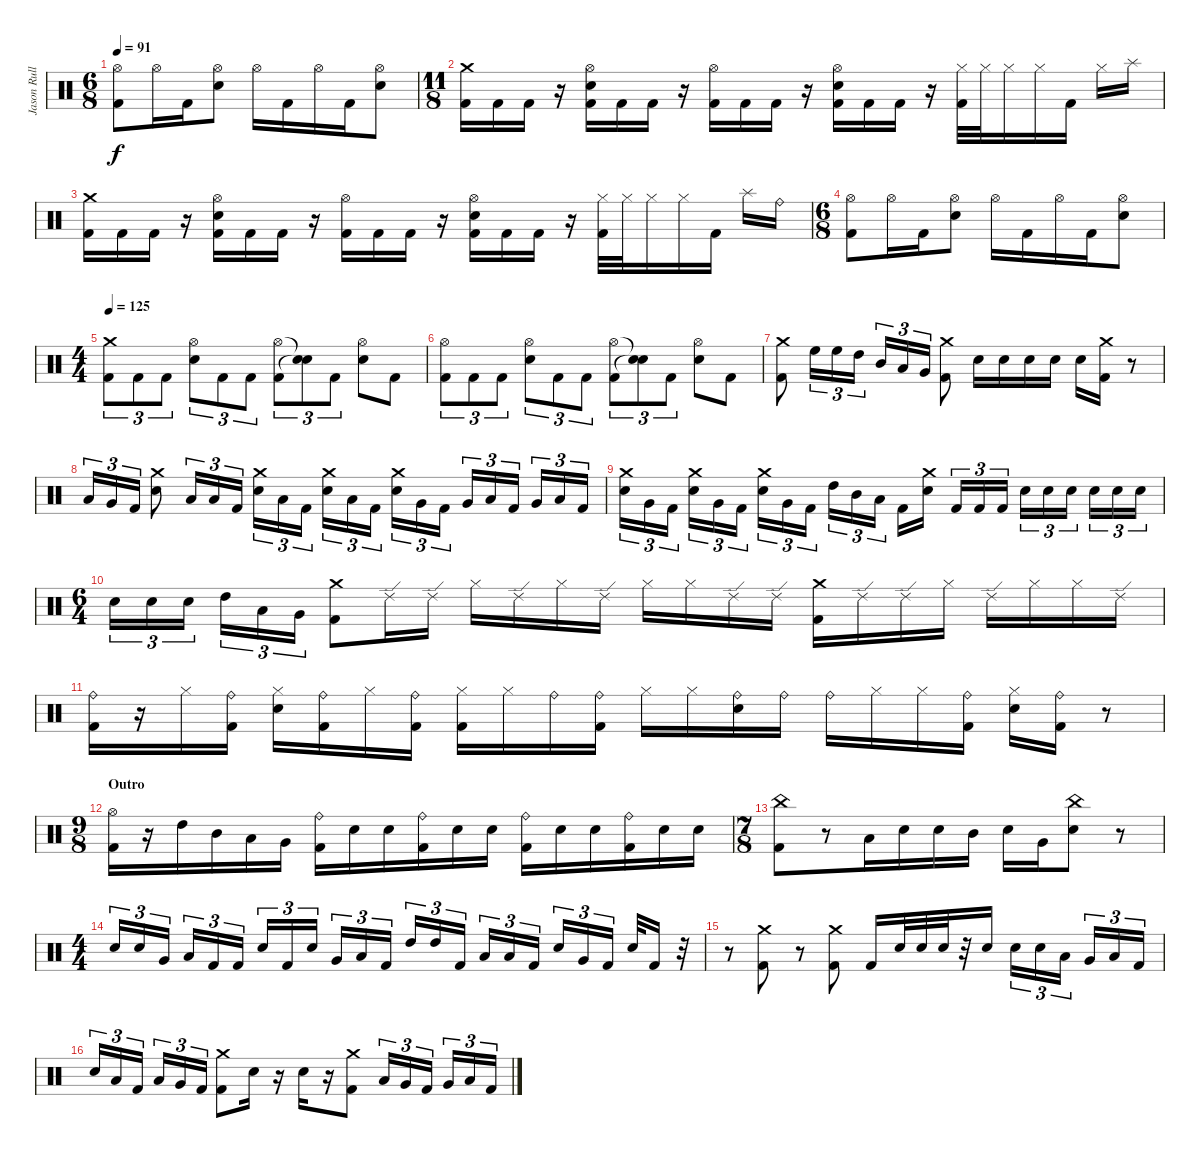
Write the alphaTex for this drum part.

\track ("Jason Rullo" "Jason Rull") {instrument percussion}
\staff {score}
\articulation defaults
\ts (6 8)
\tempo 91
\clef neutral
\ks c
("Hi-Hat (open)" "Kick (hit) 2").8{dy f} "Hi-Hat (open)".16 "Kick (hit) 2".16 ("Hi-Hat (open)" "Electric Snare (hit)").8 "Hi-Hat (open)".16 "Kick (hit) 2".16 "Hi-Hat (open)".16 "Kick (hit) 2".16 ("Hi-Hat (open)" "Electric Snare (hit)").8 |
\ts (11 8)
("Kick (hit) 2" "Crash medium (hit)").16 "Kick (hit) 2".16 "Kick (hit) 2".16 r.16 ("Kick (hit) 2" "Electric Snare (hit)" "Hi-Hat (open)").16 "Kick (hit) 2".16 "Kick (hit) 2".16 r.16 ("Kick (hit) 2" "Hi-Hat (open)").16 "Kick (hit) 2".16 "Kick (hit) 2".16 r.16 ("Electric Snare (hit)" "Kick (hit) 2" "Hi-Hat (open)").16 "Kick (hit) 2".16 "Kick (hit) 2".16 r.16 ("Hi-Hat (closed)" "Kick (hit) 2").32 "Hi-Hat (closed)".32 "Hi-Hat (closed)".16 "Hi-Hat (closed)".16 "Kick (hit) 2".16 "Hi-Hat (closed)".16 "Splash (hit)".16 |
("Kick (hit) 2" "Crash medium (hit)").16 "Kick (hit) 2".16 "Kick (hit) 2".16 r.16 ("Kick (hit) 2" "Electric Snare (hit)" "Hi-Hat (open)").16 "Kick (hit) 2".16 "Kick (hit) 2".16 r.16 ("Kick (hit) 2" "Hi-Hat (open)").16 "Kick (hit) 2".16 "Kick (hit) 2".16 r.16 ("Electric Snare (hit)" "Kick (hit) 2" "Hi-Hat (open)").16 "Kick (hit) 2".16 "Kick (hit) 2".16 r.16 ("Hi-Hat (closed)" "Kick (hit) 2").32 "Hi-Hat (closed)".32 "Hi-Hat (closed)".16 "Hi-Hat (closed)".16 "Kick (hit) 2".16 "Splash (hit)".16 "Ride (bell)".16 |
\ts (6 8)
("Hi-Hat (open)" "Kick (hit) 2").8 "Hi-Hat (open)".16 "Kick (hit) 2".16 ("Hi-Hat (open)" "Electric Snare (hit)").8 "Hi-Hat (open)".16 "Kick (hit) 2".16 "Hi-Hat (open)".16 "Kick (hit) 2".16 ("Hi-Hat (open)" "Electric Snare (hit)").8 |
\ts (4 4)
\tempo 125
("Crash medium (hit)" "Kick (hit) 2").8{tu (3 2)} "Kick (hit) 2".8{tu (3 2)} "Kick (hit) 2".8{tu (3 2)} ("Hi-Hat (open)" "Electric Snare (hit)").8{tu (3 2)} "Kick (hit) 2".8{tu (3 2)} "Kick (hit) 2".8{tu (3 2)} ("Hi-Hat (open)" "Kick (hit) 2").8{tu (3 2)} ("Snare (hit)"{t} "Snare (hit)"{t}).8{tu (3 2)} "Kick (hit) 2".8{tu (3 2)} ("Hi-Hat (open)" "Electric Snare (hit)").8 "Kick (hit) 2".8 |
("Hi-Hat (open)" "Kick (hit) 2").8{tu (3 2)} "Kick (hit) 2".8{tu (3 2)} "Kick (hit) 2".8{tu (3 2)} ("Hi-Hat (open)" "Electric Snare (hit)").8{tu (3 2)} "Kick (hit) 2".8{tu (3 2)} "Kick (hit) 2".8{tu (3 2)} ("Hi-Hat (open)" "Kick (hit) 2").8{tu (3 2)} ("Snare (hit)"{t} "Snare (hit)"{t}).8{tu (3 2)} "Kick (hit) 2".8{tu (3 2)} ("Hi-Hat (open)" "Electric Snare (hit)").8 "Kick (hit) 2".8 |
("Crash medium (hit)" "Kick (hit) 2").8 "High Floor Tom (hit)".16{tu (3 2)} "High Floor Tom (hit)".16{tu (3 2)} "High Tom (hit)".16{tu (3 2)} "Mid Tom (hit)".16{tu (3 2)} "Low Tom (hit)".16{tu (3 2)} "Very Low Tom (hit)".16{tu (3 2)} ("Crash medium (hit)" "Kick (hit) 2").8 "Electric Snare (hit)".16 "Electric Snare (hit)".16 "Electric Snare (hit)".16 "Electric Snare (hit)".16 "Electric Snare (hit)".16 ("Crash medium (hit)" "Kick (hit) 2").16 r.8 |
"Low Tom (hit)".16{tu (3 2)} "Very Low Tom (hit)".16{tu (3 2)} "Kick (hit) 2".16{tu (3 2)} ("Crash medium (hit)" "Electric Snare (hit)").8 "Low Tom (hit)".16{tu (3 2)} "Low Floor Tom (hit)".16{tu (3 2)} "Kick (hit) 2".16{tu (3 2)} ("Crash medium (hit)" "Electric Snare (hit)").16{tu (3 2)} "Low Floor Tom (hit)".16{tu (3 2)} "Kick (hit) 2".16{tu (3 2)} ("Crash medium (hit)" "Electric Snare (hit)").16{tu (3 2)} "Low Floor Tom (hit)".16{tu (3 2)} "Kick (hit) 2".16{tu (3 2)} ("Crash medium (hit)" "Electric Snare (hit)").16{tu (3 2)} "Very Low Tom (hit)".16{tu (3 2)} "Kick (hit) 2".16{tu (3 2)} "Very Low Tom (hit)".16{tu (3 2)} "Low Floor Tom (hit)".16{tu (3 2)} "Kick (hit) 2".16{tu (3 2)} "Very Low Tom (hit)".16{tu (3 2)} "Low Floor Tom (hit)".16{tu (3 2)} "Kick (hit) 2".16{tu (3 2)} |
("Crash medium (hit)" "Electric Snare (hit)").16{tu (3 2)} "Very Low Tom (hit)".16{tu (3 2)} "Kick (hit) 2".16{tu (3 2)} ("Crash medium (hit)" "Electric Snare (hit)").16{tu (3 2)} "Very Low Tom (hit)".16{tu (3 2)} "Kick (hit) 2".16{tu (3 2)} ("Crash medium (hit)" "Electric Snare (hit)").16{tu (3 2)} "Very Low Tom (hit)".16{tu (3 2)} "Kick (hit) 2".16{tu (3 2)} "High Tom (hit)".16{tu (3 2)} "Mid Tom (hit)".16{tu (3 2)} "Low Tom (hit)".16{tu (3 2)} "Kick (hit) 2".16 ("Crash medium (hit)" "Electric Snare (hit)").16 "Kick (hit) 2".16{tu (3 2)} "Kick (hit) 2".16{tu (3 2)} "Kick (hit) 2".16{tu (3 2)} "Electric Snare (hit)".16{tu (3 2)} "Electric Snare (hit)".16{tu (3 2)} "Electric Snare (hit)".16{tu (3 2)} "Electric Snare (hit)".16{tu (3 2)} "Electric Snare (hit)".16{tu (3 2)} "Electric Snare (hit)".16{tu (3 2)} |
\ts (6 4)
"Electric Snare (hit)".16{tu (3 2)} "Electric Snare (hit)".16{tu (3 2)} "Electric Snare (hit)".16{tu (3 2)} "High Tom (hit)".16{tu (3 2)} "Low Tom (hit)".16{tu (3 2)} "Very Low Tom (hit)".16{tu (3 2)} ("Crash medium (hit)" "Kick (hit) 2").8 "Ride (edge) 2".16 "Ride (edge) 2".16 "Hi-Hat (closed)".16 "Ride (edge) 2".16 "Hi-Hat (closed)".16 "Ride (edge) 2".16 "Hi-Hat (closed)".16 "Hi-Hat (closed)".16 "Ride (edge) 2".16 "Ride (edge) 2".16 ("Crash medium (hit)" "Kick (hit) 2").16 "Ride (edge) 2".16 "Ride (edge) 2".16 "Hi-Hat (closed)".16 "Ride (edge) 2".16 "Hi-Hat (closed)".16 "Hi-Hat (closed)".16 "Ride (edge) 2".16 |
("Ride (bell)" "Kick (hit) 2").16 r.16 "Hi-Hat (closed)".16 ("Ride (bell)" "Kick (hit) 2").16 ("Hi-Hat (closed)" "Electric Snare (hit)").16 ("Ride (bell)" "Kick (hit) 2").16 "Hi-Hat (closed)".16 ("Ride (bell)" "Kick (hit) 2").16 ("Hi-Hat (closed)" "Kick (hit) 2").16 "Hi-Hat (closed)".16 "Ride (bell)".16 ("Ride (bell)" "Kick (hit) 2").16 "Hi-Hat (closed)".16 "Hi-Hat (closed)".16 ("Ride (bell)" "Electric Snare (hit)").16 "Ride (bell)".16 "Ride (bell)".16 "Hi-Hat (closed)".16 "Hi-Hat (closed)".16 ("Ride (bell)" "Kick (hit) 2").16 ("Hi-Hat (closed)" "Electric Snare (hit)").16 ("Ride (bell)" "Kick (hit) 2").16 r.8 |
\ts (9 8)
\section ("" "Outro")
("Hi-Hat (open)" "Kick (hit) 2").16 r.16 "High Tom (hit)".16 "Mid Tom (hit)".16 "Low Tom (hit)".16 "Very Low Tom (hit)".16 ("Ride (bell)" "Kick (hit) 2").16 "Electric Snare (hit)".16 "Electric Snare (hit)".16 ("Ride (bell)" "Kick (hit) 2").16 "Electric Snare (hit)".16 "Electric Snare (hit)".16 ("Ride (bell)" "Kick (hit) 2").16 "Electric Snare (hit)".16 "Electric Snare (hit)".16 ("Ride (bell)" "Kick (hit) 2").16 "Electric Snare (hit)".16 "Electric Snare (hit)".16 |
\ts (7 8)
("China (hit)" "Kick (hit) 2").8 r.8 "Low Tom (hit)".16 "Electric Snare (hit)".16 "Electric Snare (hit)".16 "Mid Tom (hit)".16 "Electric Snare (hit)".16 "Very Low Tom (hit)".16 ("China (hit)" "Electric Snare (hit)").8 r.8 |
\ts (4 4)
"Electric Snare (hit)".16{tu (3 2)} "Electric Snare (hit)".16{tu (3 2)} "Very Low Tom (hit)".16{tu (3 2)} "Low Floor Tom (hit)".16{tu (3 2)} "Kick (hit) 2".16{tu (3 2)} "Kick (hit) 2".16{tu (3 2)} "Electric Snare (hit)".16{tu (3 2)} "Kick (hit) 2".16{tu (3 2)} "Electric Snare (hit)".16{tu (3 2)} "Very Low Tom (hit)".16{tu (3 2)} "Low Floor Tom (hit)".16{tu (3 2)} "Kick (hit) 2".16{tu (3 2)} "High Tom (hit)".16{tu (3 2)} "High Tom (hit)".16{tu (3 2)} "Kick (hit) 2".16{tu (3 2)} "Low Tom (hit)".16{tu (3 2)} "Low Tom (hit)".16{tu (3 2)} "Kick (hit) 2".16{tu (3 2)} "Electric Snare (hit)".16{tu (3 2)} "Very Low Tom (hit)".16{tu (3 2)} "Kick (hit) 2".16{tu (3 2)} "Electric Snare (hit)".32 "Kick (hit) 2".16 r.32 |
r.8 ("Crash medium (hit)" "Kick (hit) 2").8 r.8 ("Crash medium (hit)" "Kick (hit) 2").8 "Kick (hit) 2".16 "Electric Snare (hit)".32 "Electric Snare (hit)".32 "Electric Snare (hit)".32 r.32 "Electric Snare (hit)".16 "Electric Snare (hit)".16{tu (3 2)} "Electric Snare (hit)".16{tu (3 2)} "Low Tom (hit)".16{tu (3 2)} "Very Low Tom (hit)".16{tu (3 2)} "Low Floor Tom (hit)".16{tu (3 2)} "Kick (hit) 2".16{tu (3 2)} |
"Electric Snare (hit)".16{tu (3 2)} "Low Floor Tom (hit)".16{tu (3 2)} "Kick (hit) 2".16{tu (3 2)} "Low Floor Tom (hit)".16{tu (3 2)} "Very Low Tom (hit)".16{tu (3 2)} "Kick (hit) 2".16{tu (3 2)} ("Crash medium (hit)" "Kick (hit) 2").8 "Electric Snare (hit)".16 r.16 "Electric Snare (hit)".16 r.16 ("Crash medium (hit)" "Kick (hit) 2").8 "Low Floor Tom (hit)".16{tu (3 2)} "Very Low Tom (hit)".16{tu (3 2)} "Kick (hit) 2".16{tu (3 2)} "Very Low Tom (hit)".16{tu (3 2)} "Low Tom (hit)".16{tu (3 2)} "Kick (hit) 2".16{tu (3 2)}
